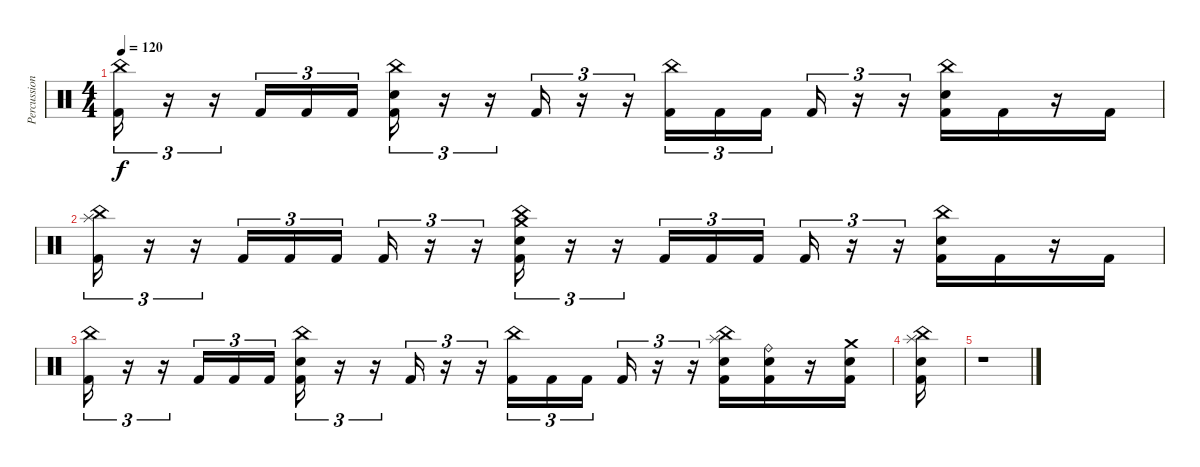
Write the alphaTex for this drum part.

\track ("Percussion" "Percussion") {instrument percussion}
\staff {score}
\articulation defaults
\ts (4 4)
\tempo 120
\clef neutral
\ks c
("China (hit)" "Kick (hit) 2").16{tu (3 2) dy f} r.16{tu (3 2)} r.16{tu (3 2)} "Kick (hit) 2".16{tu (3 2)} "Kick (hit) 2".16{tu (3 2)} "Kick (hit) 2".16{tu (3 2)} ("China (hit)" "Electric Snare (hit)" "Kick (hit) 2").16{tu (3 2)} r.16{tu (3 2)} r.16{tu (3 2)} "Kick (hit) 2".16{tu (3 2)} r.16{tu (3 2)} r.16{tu (3 2)} ("China (hit)" "Kick (hit) 2").16{tu (3 2)} "Kick (hit) 2".16{tu (3 2)} "Kick (hit) 2".16{tu (3 2)} "Kick (hit) 2".16{tu (3 2)} r.16{tu (3 2)} r.16{tu (3 2)} ("China (hit)" "Electric Snare (hit)" "Kick (hit) 2").16 "Kick (hit) 2".16 r.16 "Kick (hit) 2".16 |
("China (hit)" "Splash (hit)" "Kick (hit) 2").16{tu (3 2)} r.16{tu (3 2)} r.16{tu (3 2)} "Kick (hit) 2".16{tu (3 2)} "Kick (hit) 2".16{tu (3 2)} "Kick (hit) 2".16{tu (3 2)} "Kick (hit) 2".16{tu (3 2)} r.16{tu (3 2)} r.16{tu (3 2)} ("China (hit)" "Crash medium (hit)" "Electric Snare (hit)" "Kick (hit) 2").16{tu (3 2)} r.16{tu (3 2)} r.16{tu (3 2)} "Kick (hit) 2".16{tu (3 2)} "Kick (hit) 2".16{tu (3 2)} "Kick (hit) 2".16{tu (3 2)} "Kick (hit) 2".16{tu (3 2)} r.16{tu (3 2)} r.16{tu (3 2)} ("China (hit)" "Electric Snare (hit)" "Kick (hit) 2").16 "Kick (hit) 2".16 r.16 "Kick (hit) 2".16 |
("China (hit)" "Kick (hit) 2").16{tu (3 2)} r.16{tu (3 2)} r.16{tu (3 2)} "Kick (hit) 2".16{tu (3 2)} "Kick (hit) 2".16{tu (3 2)} "Kick (hit) 2".16{tu (3 2)} ("China (hit)" "Electric Snare (hit)" "Kick (hit) 2").16{tu (3 2)} r.16{tu (3 2)} r.16{tu (3 2)} "Kick (hit) 2".16{tu (3 2)} r.16{tu (3 2)} r.16{tu (3 2)} ("China (hit)" "Kick (hit) 2").16{tu (3 2)} "Kick (hit) 2".16{tu (3 2)} "Kick (hit) 2".16{tu (3 2)} "Kick (hit) 2".16{tu (3 2)} r.16{tu (3 2)} r.16{tu (3 2)} ("China (hit)" "Splash (hit)" "Electric Snare (hit)" "Kick (hit) 2").16 ("Ride (bell)" "Electric Snare (hit)" "Kick (hit) 2").16 r.16 ("Crash medium (hit)" "Electric Snare (hit)" "Kick (hit) 2").16 |
("China (hit)" "Splash (hit)" "Electric Snare (hit)" "Kick (hit) 2").16 |
r.1
